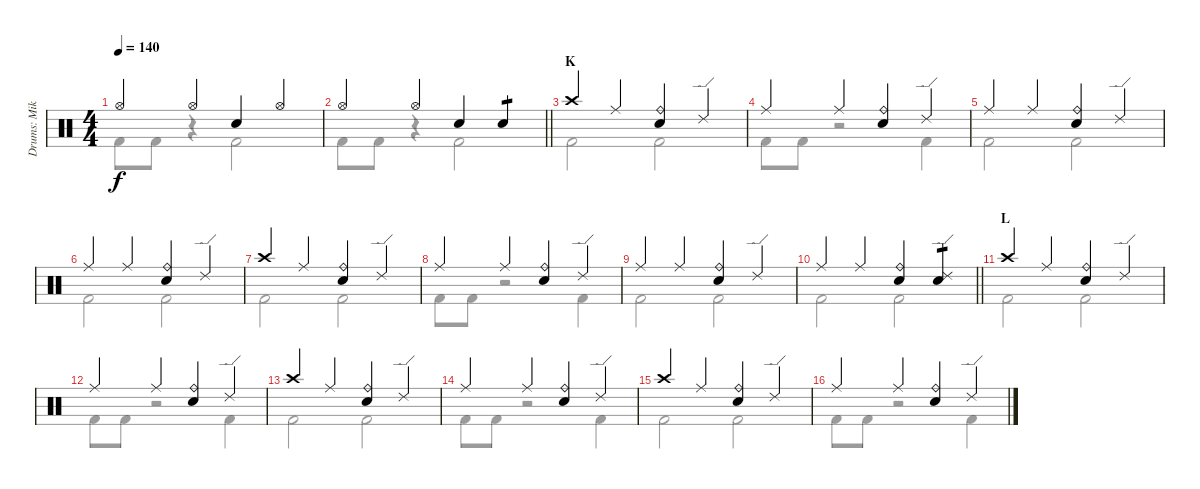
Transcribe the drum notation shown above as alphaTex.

\track ("Drums: Mike" "Drums: Mik") {instrument percussion}
\staff {score}
\articulation defaults
\voice
\ts (4 4)
\tempo 140
\clef neutral
\ks c "Hi-Hat (open)".4{dy f} "Hi-Hat (open)".4 "Snare (hit) 2".4 "Hi-Hat (open)".4
|
\barLineRight lightlight "Hi-Hat (open)".4 "Hi-Hat (open)".4 "Snare (hit) 2".4 "Snare (hit) 2".4{tp 1}
|
\section ("" "K")
"Crash high (hit)".4 "Ride (middle)".4 ("Ride (bell)" "Snare (hit) 2").4 "Ride (edge) 2".4 |
"Ride (middle)".4 "Ride (middle)".4 ("Ride (bell)" "Snare (hit) 2").4 "Ride (edge) 2".4 |
"Ride (middle)".4 "Ride (middle)".4 ("Ride (bell)" "Snare (hit) 2").4 "Ride (edge) 2".4 |
"Ride (middle)".4 "Ride (middle)".4 ("Ride (bell)" "Snare (hit) 2").4 "Ride (edge) 2".4 |
"Crash high (hit)".4 "Ride (middle)".4 ("Ride (bell)" "Snare (hit) 2").4 "Ride (edge) 2".4 |
"Ride (middle)".4 "Ride (middle)".4 ("Ride (bell)" "Snare (hit) 2").4 "Ride (edge) 2".4 |
"Ride (middle)".4 "Ride (middle)".4 ("Ride (bell)" "Snare (hit) 2").4 "Ride (edge) 2".4 |
\barLineRight lightlight "Ride (middle)".4 "Ride (middle)".4
("Ride (bell)" "Snare (hit) 2").4 ("Ride (edge) 2" "Snare (hit) 2").4{tp 1} |
\section ("" "L")
"Crash high (hit)".4 "Ride (middle)".4 ("Ride (bell)" "Snare (hit) 2").4 "Ride (edge) 2".4 |
"Ride (middle)".4 "Ride (middle)".4 ("Ride (bell)" "Snare (hit) 2").4 "Ride (edge) 2".4 |
"Crash high (hit)".4 "Ride (middle)".4 ("Ride (bell)" "Snare (hit) 2").4 "Ride (edge) 2".4 |
"Ride (middle)".4 "Ride (middle)".4 ("Ride (bell)" "Snare (hit) 2").4 "Ride (edge) 2".4 |
"Crash high (hit)".4 "Ride (middle)".4 ("Ride (bell)" "Snare (hit) 2").4 "Ride (edge) 2".4 |
"Ride (middle)".4 "Ride (middle)".4 ("Ride (bell)" "Snare (hit) 2").4 "Ride (edge) 2".4
\voice
\clef neutral
\ottava regular
\simile none
\ks c "Kick (hit) 2".8{dy f} "Kick (hit) 2".8
r.4 "Kick (hit) 2".2 |
\barLineRight lightlight "Kick (hit) 2".8 "Kick (hit) 2".8
r.4 "Kick (hit) 2".2 |
"Kick (hit) 2".2 "Kick (hit) 2".2 |
"Kick (hit) 2".8 "Kick (hit) 2".8 r.2 "Kick (hit) 2".4 |
"Kick (hit) 2".2 "Kick (hit) 2".2 |
"Kick (hit) 2".2 "Kick (hit) 2".2 |
"Kick (hit) 2".2 "Kick (hit) 2".2 |
"Kick (hit) 2".8 "Kick (hit) 2".8 r.2 "Kick (hit) 2".4 |
"Kick (hit) 2".2 "Kick (hit) 2".2 |
\barLineRight lightlight "Kick (hit) 2".2 "Kick (hit) 2".2
|
"Kick (hit) 2".2 "Kick (hit) 2".2 |
"Kick (hit) 2".8 "Kick (hit) 2".8 r.2 "Kick (hit) 2".4 |
"Kick (hit) 2".2 "Kick (hit) 2".2 |
"Kick (hit) 2".8 "Kick (hit) 2".8 r.2 "Kick (hit) 2".4 |
"Kick (hit) 2".2 "Kick (hit) 2".2 |
"Kick (hit) 2".8 "Kick (hit) 2".8 r.2 "Kick (hit) 2".4
